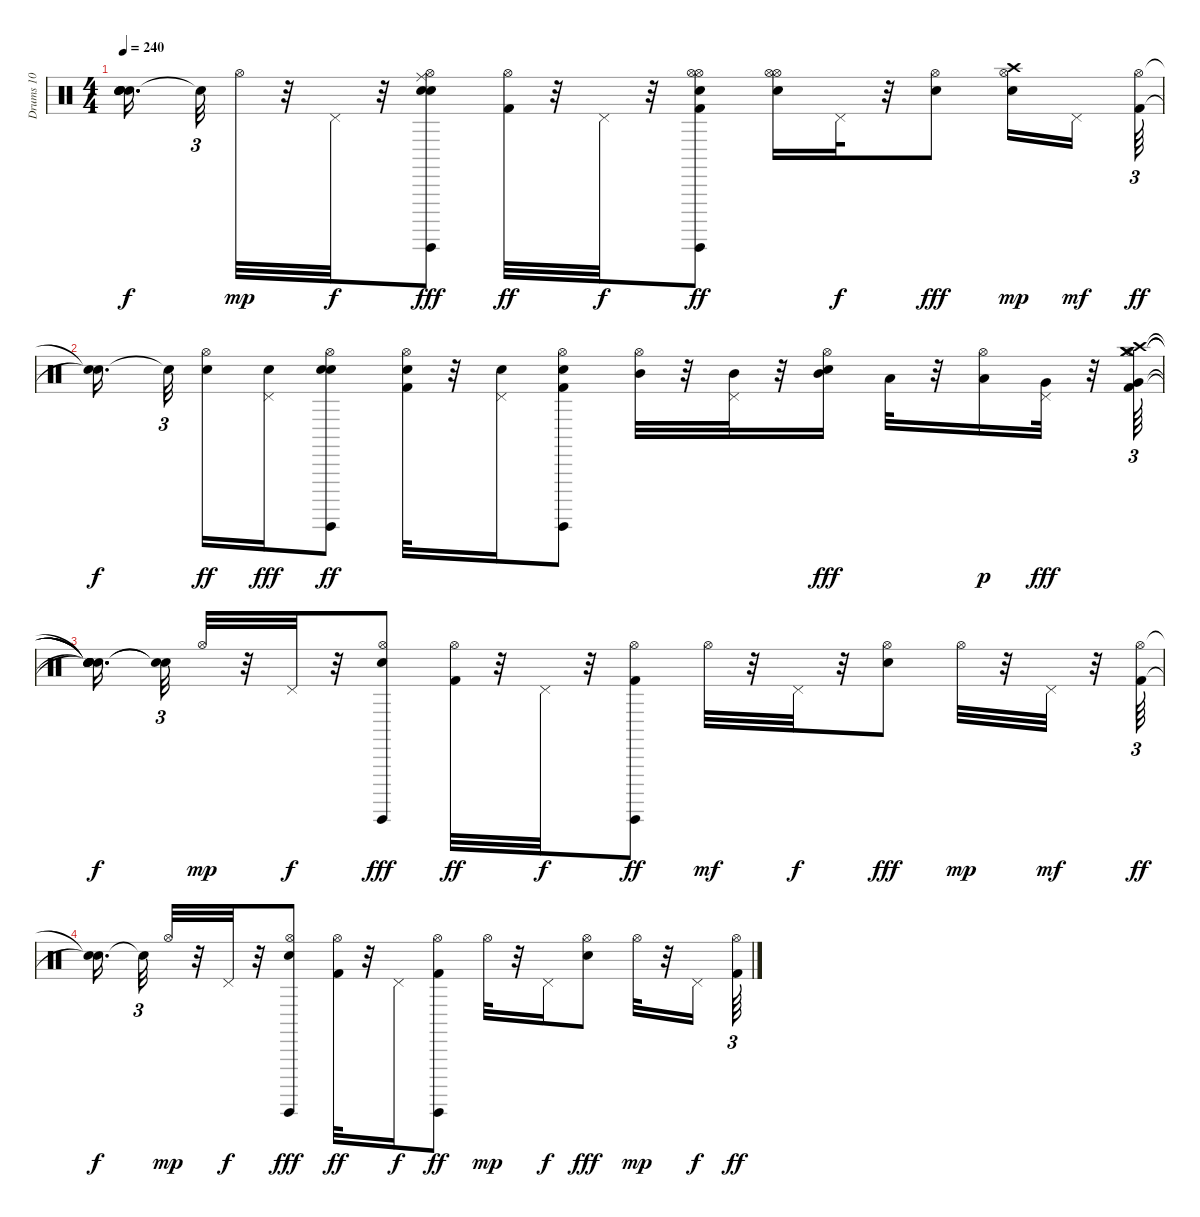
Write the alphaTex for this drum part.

\track ("Drums 10" "Drums 10") {instrument percussion}
\staff {score}
\articulation defaults
\ts (4 4)
\tempo 240
\clef neutral
\ks c
("Snare (hit)"{t} "Snare (hit)"{t} "Snare (hit)"{t} "Snare (hit)"{t} "Snare (hit)"{t}).16{d dy f beam splitsecondary} "Snare (hit)"{t}.32{tu (3 2)} "Hi-Hat (open)".32{dy mp} r.32 "Pedal Hi-Hat (hit)".32{dy f} r.32 ("Hi-Hat (open)" "Guiro (hit)" "Snare (hit) 2" "Electric Snare (hit)" "Ride (middle)").8{dy fff} ("Hi-Hat (open)" "Kick (hit) 2").32{dy ff} r.32 "Pedal Hi-Hat (hit)".32{dy f} r.32 ("Hi-Hat (open)" "Guiro (hit)" "Kick (hit) 2" "Electric Snare (hit)" "Hi-Hat (open)").8{dy ff} ("Hi-Hat (open)" "Electric Snare (hit)" "Hi-Hat (open)").16 "Pedal Hi-Hat (hit)".32{dy f} r.32 ("Hi-Hat (open)" "Snare (hit) 2").8{dy fff} ("Hi-Hat (open)" "Electric Snare (hit)" "Crash high (hit)").16{dy mp} "Pedal Hi-Hat (hit)".16{dy mf beam splitsecondary} ("Hi-Hat (open)" "Kick (hit) 2").64{tu (3 2) dy ff} |
("Snare (hit)"{t} "Snare (hit)"{t}).16{d dy f beam splitsecondary} "Snare (hit)"{t}.32{tu (3 2) beam splitsecondary} ("Hi-Hat (open)" "Electric Snare (hit)").16{dy ff} ("Pedal Hi-Hat (hit)" "Electric Snare (hit)").16{dy fff} ("Hi-Hat (open)" "Guiro (hit)" "Snare (hit) 2" "Electric Snare (hit)").8{dy ff} ("Hi-Hat (open)" "Kick (hit) 2" "Electric Snare (hit)").32 r.32 ("Pedal Hi-Hat (hit)" "Electric Snare (hit)").16 ("Hi-Hat (open)" "Guiro (hit)" "Kick (hit) 2" "Electric Snare (hit)").8 ("Hi-Hat (open)" "Mid Tom (hit)").32 r.32 ("Pedal Hi-Hat (hit)" "Mid Tom (hit)").32 r.32 ("Hi-Hat (open)" "Snare (hit) 2" "Mid Tom (hit)").16{dy fff} "Low Tom (hit)".32 r.32 ("Hi-Hat (open)" "Low Tom (hit)").16{dy p} ("Pedal Hi-Hat (hit)" "Very Low Tom (hit)").32{dy fff} r.32 ("Crash medium (hit)" "Hi-Hat (open)" "Kick (hit) 2" "Very Low Tom (hit)" "Crash medium (hit)" "Crash high (hit)").64{tu (3 2)} |
("Snare (hit)"{t} "Snare (hit)"{t} "Snare (hit)"{t} "Snare (hit)"{t} "Snare (hit)"{t} "Snare (hit)"{t}).16{d dy f beam splitsecondary} ("Snare (hit)"{t} "Snare (hit)"{t}).32{tu (3 2)} "Hi-Hat (open)".32{dy mp} r.32 "Pedal Hi-Hat (hit)".32{dy f} r.32 ("Hi-Hat (open)" "Guiro (hit)" "Snare (hit) 2").8{dy fff} ("Hi-Hat (open)" "Kick (hit) 2").32{dy ff} r.32 "Pedal Hi-Hat (hit)".32{dy f} r.32 ("Hi-Hat (open)" "Guiro (hit)" "Kick (hit) 2").8{dy ff} "Hi-Hat (open)".32{dy mf} r.32 "Pedal Hi-Hat (hit)".32{dy f} r.32 ("Hi-Hat (open)" "Snare (hit) 2").8{dy fff} "Hi-Hat (open)".32{dy mp} r.32 "Pedal Hi-Hat (hit)".32{dy mf} r.32 ("Hi-Hat (open)" "Kick (hit) 2").64{tu (3 2) dy ff} |
("Snare (hit)"{t} "Snare (hit)"{t}).16{d dy f beam splitsecondary} "Snare (hit)"{t}.32{tu (3 2)} "Hi-Hat (open)".32{dy mp} r.32 "Pedal Hi-Hat (hit)".32{dy f} r.32 ("Hi-Hat (open)" "Guiro (hit)" "Snare (hit) 2").8{dy fff} ("Hi-Hat (open)" "Kick (hit) 2").32{dy ff} r.32 "Pedal Hi-Hat (hit)".16{dy f} ("Hi-Hat (open)" "Guiro (hit)" "Kick (hit) 2").8{dy ff} "Hi-Hat (open)".32{dy mp} r.32 "Pedal Hi-Hat (hit)".16{dy f} ("Hi-Hat (open)" "Snare (hit) 2").8{dy fff} "Hi-Hat (open)".32{dy mp} r.32 "Pedal Hi-Hat (hit)".16{dy f} ("Hi-Hat (open)" "Kick (hit) 2").64{tu (3 2) dy ff}
